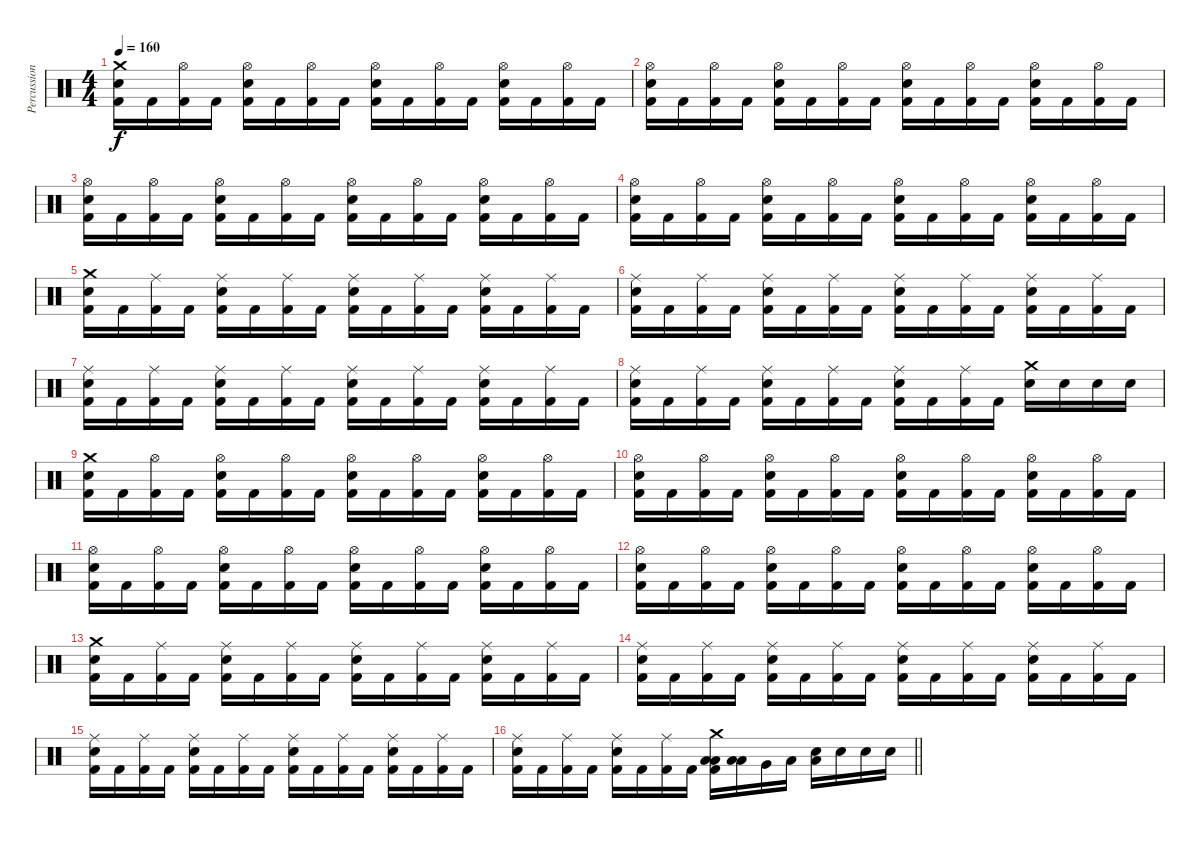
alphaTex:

\track ("Percussion" "Percussion") {instrument percussion}
\staff {score}
\articulation defaults
\ts (4 4)
\tempo 160
\clef neutral
\ks c
("Crash medium (hit)" "Snare (hit) 2" "Kick (hit) 2").16{dy f} "Kick (hit) 2".16 ("Hi-Hat (open)" "Kick (hit) 2").16 "Kick (hit) 2".16 ("Hi-Hat (open)" "Snare (hit) 2" "Kick (hit) 2").16 "Kick (hit) 2".16 ("Hi-Hat (open)" "Kick (hit) 2").16 "Kick (hit) 2".16 ("Hi-Hat (open)" "Snare (hit) 2" "Kick (hit) 2").16 "Kick (hit) 2".16 ("Hi-Hat (open)" "Kick (hit) 2").16 "Kick (hit) 2".16 ("Hi-Hat (open)" "Snare (hit) 2" "Kick (hit) 2").16 "Kick (hit) 2".16 ("Hi-Hat (open)" "Kick (hit) 2").16 "Kick (hit) 2".16 |
("Hi-Hat (open)" "Snare (hit) 2" "Kick (hit) 2").16 "Kick (hit) 2".16 ("Hi-Hat (open)" "Kick (hit) 2").16 "Kick (hit) 2".16 ("Hi-Hat (open)" "Snare (hit) 2" "Kick (hit) 2").16 "Kick (hit) 2".16 ("Hi-Hat (open)" "Kick (hit) 2").16 "Kick (hit) 2".16 ("Hi-Hat (open)" "Snare (hit) 2" "Kick (hit) 2").16 "Kick (hit) 2".16 ("Hi-Hat (open)" "Kick (hit) 2").16 "Kick (hit) 2".16 ("Hi-Hat (open)" "Snare (hit) 2" "Kick (hit) 2").16 "Kick (hit) 2".16 ("Hi-Hat (open)" "Kick (hit) 2").16 "Kick (hit) 2".16 |
("Hi-Hat (open)" "Snare (hit) 2" "Kick (hit) 2").16 "Kick (hit) 2".16 ("Hi-Hat (open)" "Kick (hit) 2").16 "Kick (hit) 2".16 ("Hi-Hat (open)" "Snare (hit) 2" "Kick (hit) 2").16 "Kick (hit) 2".16 ("Hi-Hat (open)" "Kick (hit) 2").16 "Kick (hit) 2".16 ("Hi-Hat (open)" "Snare (hit) 2" "Kick (hit) 2").16 "Kick (hit) 2".16 ("Hi-Hat (open)" "Kick (hit) 2").16 "Kick (hit) 2".16 ("Hi-Hat (open)" "Snare (hit) 2" "Kick (hit) 2").16 "Kick (hit) 2".16 ("Hi-Hat (open)" "Kick (hit) 2").16 "Kick (hit) 2".16 |
("Hi-Hat (open)" "Snare (hit) 2" "Kick (hit) 2").16 "Kick (hit) 2".16 ("Hi-Hat (open)" "Kick (hit) 2").16 "Kick (hit) 2".16 ("Hi-Hat (open)" "Snare (hit) 2" "Kick (hit) 2").16 "Kick (hit) 2".16 ("Hi-Hat (open)" "Kick (hit) 2").16 "Kick (hit) 2".16 ("Hi-Hat (open)" "Snare (hit) 2" "Kick (hit) 2").16 "Kick (hit) 2".16 ("Hi-Hat (open)" "Kick (hit) 2").16 "Kick (hit) 2".16 ("Hi-Hat (open)" "Snare (hit) 2" "Kick (hit) 2").16 "Kick (hit) 2".16 ("Hi-Hat (open)" "Kick (hit) 2").16 "Kick (hit) 2".16 |
("Crash medium (hit)" "Snare (hit) 2" "Kick (hit) 2").16 "Kick (hit) 2".16 ("Ride (middle)" "Kick (hit) 2").16 "Kick (hit) 2".16 ("Ride (middle)" "Snare (hit) 2" "Kick (hit) 2").16 "Kick (hit) 2".16 ("Ride (middle)" "Kick (hit) 2").16 "Kick (hit) 2".16 ("Ride (middle)" "Snare (hit) 2" "Kick (hit) 2").16 "Kick (hit) 2".16 ("Ride (middle)" "Kick (hit) 2").16 "Kick (hit) 2".16 ("Ride (middle)" "Snare (hit) 2" "Kick (hit) 2").16 "Kick (hit) 2".16 ("Ride (middle)" "Kick (hit) 2").16 "Kick (hit) 2".16 |
("Ride (middle)" "Snare (hit) 2" "Kick (hit) 2").16 "Kick (hit) 2".16 ("Ride (middle)" "Kick (hit) 2").16 "Kick (hit) 2".16 ("Ride (middle)" "Snare (hit) 2" "Kick (hit) 2").16 "Kick (hit) 2".16 ("Ride (middle)" "Kick (hit) 2").16 "Kick (hit) 2".16 ("Ride (middle)" "Snare (hit) 2" "Kick (hit) 2").16 "Kick (hit) 2".16 ("Ride (middle)" "Kick (hit) 2").16 "Kick (hit) 2".16 ("Ride (middle)" "Snare (hit) 2" "Kick (hit) 2").16 "Kick (hit) 2".16 ("Ride (middle)" "Kick (hit) 2").16 "Kick (hit) 2".16 |
("Ride (middle)" "Snare (hit) 2" "Kick (hit) 2").16 "Kick (hit) 2".16 ("Ride (middle)" "Kick (hit) 2").16 "Kick (hit) 2".16 ("Ride (middle)" "Snare (hit) 2" "Kick (hit) 2").16 "Kick (hit) 2".16 ("Ride (middle)" "Kick (hit) 2").16 "Kick (hit) 2".16 ("Ride (middle)" "Snare (hit) 2" "Kick (hit) 2").16 "Kick (hit) 2".16 ("Ride (middle)" "Kick (hit) 2").16 "Kick (hit) 2".16 ("Ride (middle)" "Snare (hit) 2" "Kick (hit) 2").16 "Kick (hit) 2".16 ("Ride (middle)" "Kick (hit) 2").16 "Kick (hit) 2".16 |
("Ride (middle)" "Snare (hit) 2" "Kick (hit) 2").16 "Kick (hit) 2".16 ("Ride (middle)" "Kick (hit) 2").16 "Kick (hit) 2".16 ("Ride (middle)" "Snare (hit) 2" "Kick (hit) 2").16 "Kick (hit) 2".16 ("Ride (middle)" "Kick (hit) 2").16 "Kick (hit) 2".16 ("Ride (middle)" "Snare (hit) 2" "Kick (hit) 2").16 "Kick (hit) 2".16 ("Ride (middle)" "Kick (hit) 2").16 "Kick (hit) 2".16 ("Crash medium (hit)" "Snare (hit) 2").16 "Snare (hit) 2".16 "Snare (hit) 2".16 "Snare (hit) 2".16 |
("Crash medium (hit)" "Snare (hit) 2" "Kick (hit) 2").16 "Kick (hit) 2".16 ("Hi-Hat (open)" "Kick (hit) 2").16 "Kick (hit) 2".16 ("Hi-Hat (open)" "Snare (hit) 2" "Kick (hit) 2").16 "Kick (hit) 2".16 ("Hi-Hat (open)" "Kick (hit) 2").16 "Kick (hit) 2".16 ("Hi-Hat (open)" "Snare (hit) 2" "Kick (hit) 2").16 "Kick (hit) 2".16 ("Hi-Hat (open)" "Kick (hit) 2").16 "Kick (hit) 2".16 ("Hi-Hat (open)" "Snare (hit) 2" "Kick (hit) 2").16 "Kick (hit) 2".16 ("Hi-Hat (open)" "Kick (hit) 2").16 "Kick (hit) 2".16 |
("Hi-Hat (open)" "Snare (hit) 2" "Kick (hit) 2").16 "Kick (hit) 2".16 ("Hi-Hat (open)" "Kick (hit) 2").16 "Kick (hit) 2".16 ("Hi-Hat (open)" "Snare (hit) 2" "Kick (hit) 2").16 "Kick (hit) 2".16 ("Hi-Hat (open)" "Kick (hit) 2").16 "Kick (hit) 2".16 ("Hi-Hat (open)" "Snare (hit) 2" "Kick (hit) 2").16 "Kick (hit) 2".16 ("Hi-Hat (open)" "Kick (hit) 2").16 "Kick (hit) 2".16 ("Hi-Hat (open)" "Snare (hit) 2" "Kick (hit) 2").16 "Kick (hit) 2".16 ("Hi-Hat (open)" "Kick (hit) 2").16 "Kick (hit) 2".16 |
("Hi-Hat (open)" "Snare (hit) 2" "Kick (hit) 2").16 "Kick (hit) 2".16 ("Hi-Hat (open)" "Kick (hit) 2").16 "Kick (hit) 2".16 ("Hi-Hat (open)" "Snare (hit) 2" "Kick (hit) 2").16 "Kick (hit) 2".16 ("Hi-Hat (open)" "Kick (hit) 2").16 "Kick (hit) 2".16 ("Hi-Hat (open)" "Snare (hit) 2" "Kick (hit) 2").16 "Kick (hit) 2".16 ("Hi-Hat (open)" "Kick (hit) 2").16 "Kick (hit) 2".16 ("Hi-Hat (open)" "Snare (hit) 2" "Kick (hit) 2").16 "Kick (hit) 2".16 ("Hi-Hat (open)" "Kick (hit) 2").16 "Kick (hit) 2".16 |
("Hi-Hat (open)" "Snare (hit) 2" "Kick (hit) 2").16 "Kick (hit) 2".16 ("Hi-Hat (open)" "Kick (hit) 2").16 "Kick (hit) 2".16 ("Hi-Hat (open)" "Snare (hit) 2" "Kick (hit) 2").16 "Kick (hit) 2".16 ("Hi-Hat (open)" "Kick (hit) 2").16 "Kick (hit) 2".16 ("Hi-Hat (open)" "Snare (hit) 2" "Kick (hit) 2").16 "Kick (hit) 2".16 ("Hi-Hat (open)" "Kick (hit) 2").16 "Kick (hit) 2".16 ("Hi-Hat (open)" "Snare (hit) 2" "Kick (hit) 2").16 "Kick (hit) 2".16 ("Hi-Hat (open)" "Kick (hit) 2").16 "Kick (hit) 2".16 |
("Crash medium (hit)" "Snare (hit) 2" "Kick (hit) 2").16 "Kick (hit) 2".16 ("Ride (middle)" "Kick (hit) 2").16 "Kick (hit) 2".16 ("Ride (middle)" "Snare (hit) 2" "Kick (hit) 2").16 "Kick (hit) 2".16 ("Ride (middle)" "Kick (hit) 2").16 "Kick (hit) 2".16 ("Ride (middle)" "Snare (hit) 2" "Kick (hit) 2").16 "Kick (hit) 2".16 ("Ride (middle)" "Kick (hit) 2").16 "Kick (hit) 2".16 ("Ride (middle)" "Snare (hit) 2" "Kick (hit) 2").16 "Kick (hit) 2".16 ("Ride (middle)" "Kick (hit) 2").16 "Kick (hit) 2".16 |
("Ride (middle)" "Snare (hit) 2" "Kick (hit) 2").16 "Kick (hit) 2".16 ("Ride (middle)" "Kick (hit) 2").16 "Kick (hit) 2".16 ("Ride (middle)" "Snare (hit) 2" "Kick (hit) 2").16 "Kick (hit) 2".16 ("Ride (middle)" "Kick (hit) 2").16 "Kick (hit) 2".16 ("Ride (middle)" "Snare (hit) 2" "Kick (hit) 2").16 "Kick (hit) 2".16 ("Ride (middle)" "Kick (hit) 2").16 "Kick (hit) 2".16 ("Ride (middle)" "Snare (hit) 2" "Kick (hit) 2").16 "Kick (hit) 2".16 ("Ride (middle)" "Kick (hit) 2").16 "Kick (hit) 2".16 |
("Ride (middle)" "Snare (hit) 2" "Kick (hit) 2").16 "Kick (hit) 2".16 ("Ride (middle)" "Kick (hit) 2").16 "Kick (hit) 2".16 ("Ride (middle)" "Snare (hit) 2" "Kick (hit) 2").16 "Kick (hit) 2".16 ("Ride (middle)" "Kick (hit) 2").16 "Kick (hit) 2".16 ("Ride (middle)" "Snare (hit) 2" "Kick (hit) 2").16 "Kick (hit) 2".16 ("Ride (middle)" "Kick (hit) 2").16 "Kick (hit) 2".16 ("Ride (middle)" "Snare (hit) 2" "Kick (hit) 2").16 "Kick (hit) 2".16 ("Ride (middle)" "Kick (hit) 2").16 "Kick (hit) 2".16 |
\barLineRight lightlight
("Ride (middle)" "Snare (hit) 2" "Kick (hit) 2").16 "Kick (hit) 2".16 ("Ride (middle)" "Kick (hit) 2").16 "Kick (hit) 2".16 ("Ride (middle)" "Snare (hit) 2" "Kick (hit) 2").16 "Kick (hit) 2".16 ("Ride (middle)" "Kick (hit) 2").16 "Kick (hit) 2".16 ("Crash medium (hit)" "Low Tom (hit)" "Low Tom (hit)" "Kick (hit) 2").16 ("Low Tom (hit)" "Low Tom (hit)").16 "Very Low Tom (hit)".16 "Low Floor Tom (hit)".16 ("Low Floor Tom (hit)" "Snare (hit) 2").16 "Snare (hit) 2".16 "Snare (hit) 2".16 "Snare (hit) 2".16
